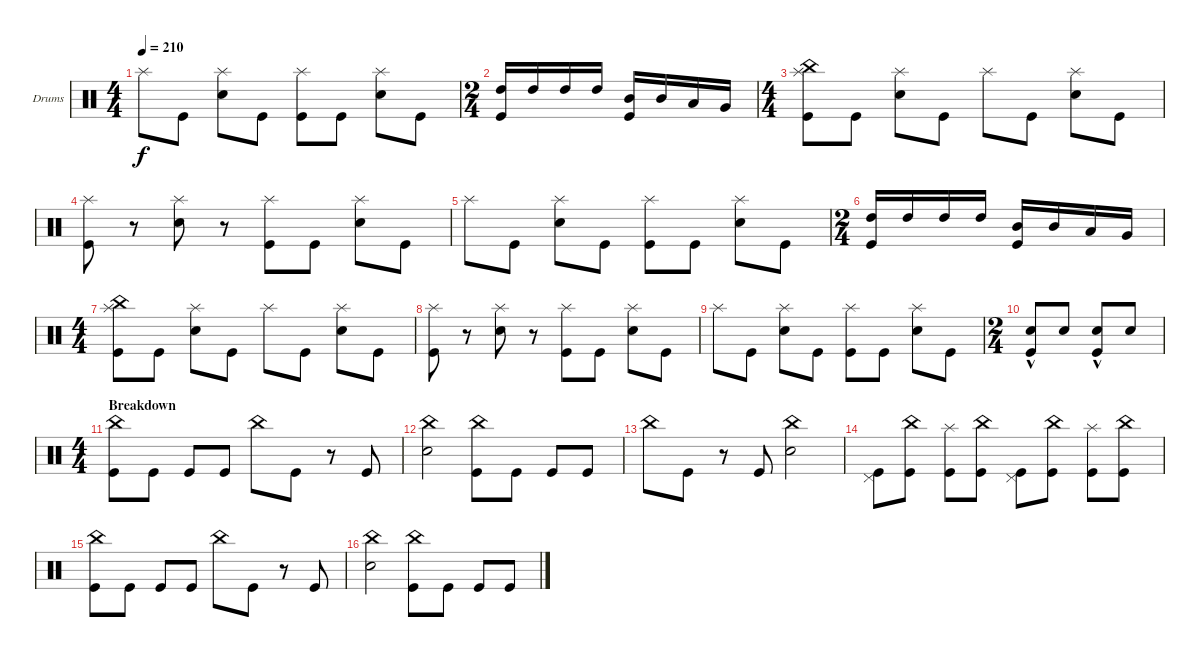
\defaultSystemsLayout 4
\bracketExtendMode groupsimilarinstruments
\firstSystemTrackNameOrientation horizontal
\otherSystemsTrackNameOrientation horizontal
\track ("Drumkit" "Drums") {instrument percussion}
\staff {score}
\articulation defaults
\ts (4 4)
\tempo 210
\clef neutral
\ks c "Splash (hit)".8{dy f} "Kick (hit)".8
("Splash (hit)" "Snare (hit) 2").8 "Kick (hit)".8 ("Splash (hit)" "Kick (hit)").8 "Kick (hit)".8 ("Splash (hit)" "Snare (hit) 2").8 "Kick (hit)".8 |
\ts (2 4)
("Kick (hit)" "High Tom (hit)").16 "High Tom (hit)".16 "High Tom (hit)".16 "High Tom (hit)".16 ("Kick (hit)" "Mid Tom (hit)").16 "Mid Tom (hit)".16 "Low Tom (hit)".16 "Very Low Tom (hit)".16 |
\ts (4 4)
("Splash (hit)" "Kick (hit)" "China (hit)").8 "Kick (hit)".8 ("Splash (hit)" "Snare (hit) 2").8 "Kick (hit)".8 "Splash (hit)".8 "Kick (hit)".8 ("Splash (hit)" "Snare (hit) 2").8 "Kick (hit)".8 |
("Kick (hit)" "Splash (hit)").8 r.8 ("Splash (hit)" "Snare (hit) 2").8 r.8 ("Splash (hit)" "Kick (hit)").8 "Kick (hit)".8 ("Splash (hit)" "Snare (hit) 2").8 "Kick (hit)".8 |
"Splash (hit)".8 "Kick (hit)".8 ("Splash (hit)" "Snare (hit) 2").8 "Kick (hit)".8 ("Splash (hit)" "Kick (hit)").8 "Kick (hit)".8 ("Splash (hit)" "Snare (hit) 2").8 "Kick (hit)".8 |
\ts (2 4)
("Kick (hit)" "High Tom (hit)").16 "High Tom (hit)".16 "High Tom (hit)".16 "High Tom (hit)".16 ("Kick (hit)" "Mid Tom (hit)").16 "Mid Tom (hit)".16 "Low Tom (hit)".16 "Very Low Tom (hit)".16 |
\ts (4 4)
("Splash (hit)" "Kick (hit)" "China (hit)").8 "Kick (hit)".8 ("Splash (hit)" "Snare (hit) 2").8 "Kick (hit)".8 "Splash (hit)".8 "Kick (hit)".8 ("Splash (hit)" "Snare (hit) 2").8 "Kick (hit)".8 |
("Kick (hit)" "Splash (hit)").8 r.8 ("Splash (hit)" "Snare (hit) 2").8 r.8 ("Splash (hit)" "Kick (hit)").8 "Kick (hit)".8 ("Splash (hit)" "Snare (hit) 2").8 "Kick (hit)".8 |
"Splash (hit)".8 "Kick (hit)".8 ("Splash (hit)" "Snare (hit) 2").8 "Kick (hit)".8 ("Splash (hit)" "Kick (hit)").8 "Kick (hit)".8 ("Splash (hit)" "Snare (hit) 2").8 "Kick (hit)".8 |
\ts (2 4)
("Snare (hit) 2"{hac} "Kick (hit)").8 "Snare (hit) 2".8 ("Snare (hit) 2"{hac} "Kick (hit)").8 "Snare (hit) 2".8 |
\ts (4 4)
\section ("" "Breakdown")
("Kick (hit)" "China (hit)").8 "Kick (hit)".8 "Kick (hit)".8 "Kick (hit)".8 "China (hit)".8 "Kick (hit)".8 r.8 "Kick (hit)".8 |
("China (hit)" "Snare (hit) 2").2 ("Kick (hit)" "China (hit)").8 "Kick (hit)".8 "Kick (hit)".8 "Kick (hit)".8 |
"China (hit)".8 "Kick (hit)".8 r.8 "Kick (hit)".8 ("China (hit)" "Snare (hit) 2").2 |
("Kick (hit)" "Pedal Hi-Hat (hit)").8 ("Kick (hit)" "China (hit)").8 ("Kick (hit)" "Splash (hit)").8 ("Kick (hit)" "China (hit)").8 ("Kick (hit)" "Pedal Hi-Hat (hit)").8 ("Kick (hit)" "China (hit)").8 ("Kick (hit)" "Splash (hit)").8 ("Kick (hit)" "China (hit)").8 |
("Kick (hit)" "China (hit)").8 "Kick (hit)".8 "Kick (hit)".8 "Kick (hit)".8 "China (hit)".8 "Kick (hit)".8 r.8 "Kick (hit)".8 |
("China (hit)" "Snare (hit) 2").2 ("Kick (hit)" "China (hit)").8 "Kick (hit)".8 "Kick (hit)".8 "Kick (hit)".8
